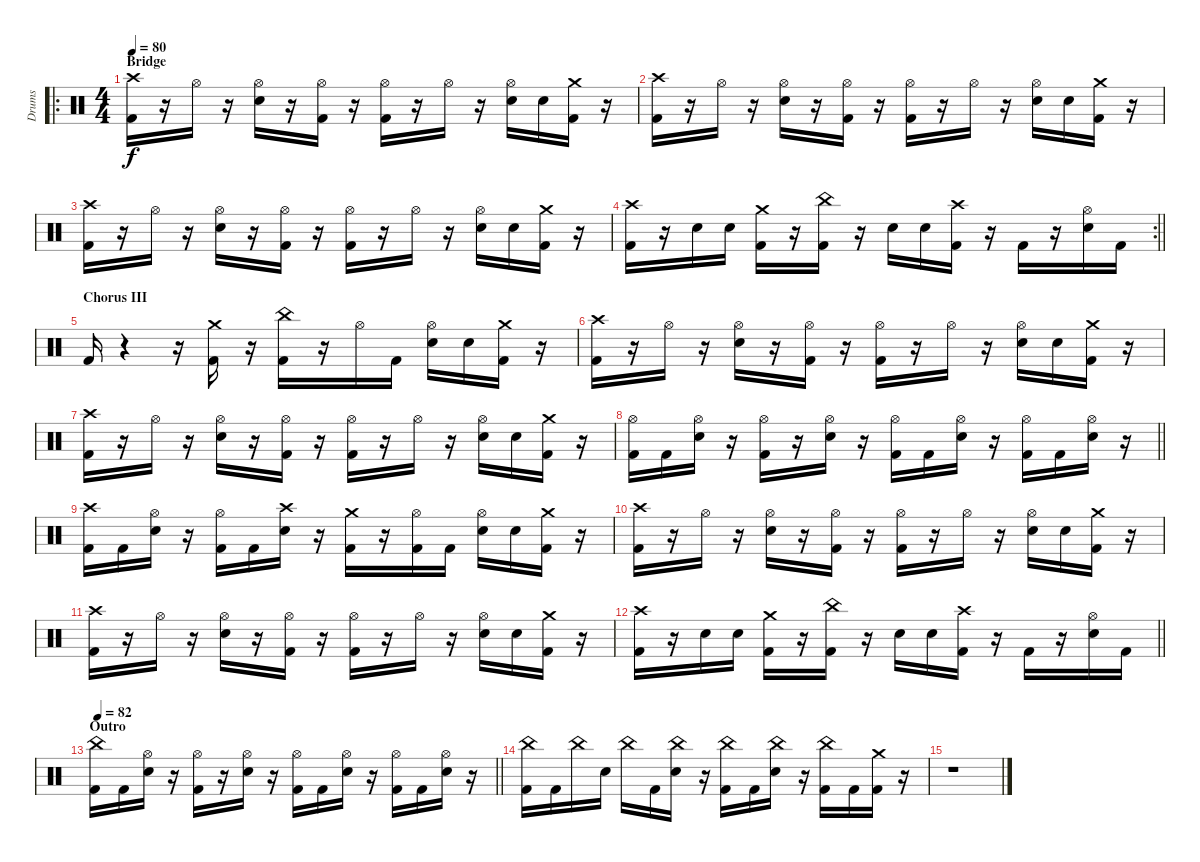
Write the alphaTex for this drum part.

\track ("Drums" "Drums") {instrument percussion}
\staff {score}
\articulation defaults
\ro
\ts (4 4)
\section ("" "Bridge")
\tempo 80
\clef neutral
\ks c
("Crash high (hit)" "Kick (hit) 2").16{dy f volume 13} r.16 "Hi-Hat (open)".16 r.16 ("Hi-Hat (open)" "Electric Snare (hit)").16 r.16 ("Hi-Hat (open)" "Kick (hit) 2").16 r.16 ("Hi-Hat (open)" "Kick (hit) 2").16 r.16 "Hi-Hat (open)".16 r.16 ("Hi-Hat (open)" "Electric Snare (hit)").16 "Electric Snare (hit)".16 ("Crash medium (hit)" "Kick (hit) 2").16 r.16 |
("Crash high (hit)" "Kick (hit) 2").16{volume 13} r.16 "Hi-Hat (open)".16 r.16 ("Hi-Hat (open)" "Electric Snare (hit)").16 r.16 ("Hi-Hat (open)" "Kick (hit) 2").16 r.16 ("Hi-Hat (open)" "Kick (hit) 2").16 r.16 "Hi-Hat (open)".16 r.16 ("Hi-Hat (open)" "Electric Snare (hit)").16 "Electric Snare (hit)".16 ("Crash medium (hit)" "Kick (hit) 2").16 r.16 |
("Crash high (hit)" "Kick (hit) 2").16{volume 13} r.16 "Hi-Hat (open)".16 r.16 ("Hi-Hat (open)" "Electric Snare (hit)").16 r.16 ("Hi-Hat (open)" "Kick (hit) 2").16 r.16 ("Hi-Hat (open)" "Kick (hit) 2").16 r.16 "Hi-Hat (open)".16 r.16 ("Hi-Hat (open)" "Electric Snare (hit)").16 "Electric Snare (hit)".16 ("Crash medium (hit)" "Kick (hit) 2").16 r.16 |
\rc 2
\barLineRight lightlight
("Crash high (hit)" "Kick (hit) 2").16 r.16 "Electric Snare (hit)".16 "Electric Snare (hit)".16 ("Crash medium (hit)" "Kick (hit) 2").16 r.16 ("China (hit)" "Kick (hit) 2").16 r.16 "Electric Snare (hit)".16 "Electric Snare (hit)".16 ("Crash high (hit)" "Kick (hit) 2").16 r.16 "Kick (hit) 2".16 r.16 ("Hi-Hat (open)" "Electric Snare (hit)").16 "Kick (hit) 2".16 |
\section ("" "Chorus III")
"Kick (hit) 2".16 r.4 r.16 ("Crash medium (hit)" "Kick (hit) 2").16 r.16 ("China (hit)" "Kick (hit) 2").16 r.16 "Hi-Hat (open)".16 "Kick (hit) 2".16 ("Hi-Hat (open)" "Electric Snare (hit)").16 "Electric Snare (hit)".16 ("Crash medium (hit)" "Kick (hit) 2").16 r.16 |
("Crash high (hit)" "Kick (hit) 2").16{volume 13} r.16 "Hi-Hat (open)".16 r.16 ("Hi-Hat (open)" "Electric Snare (hit)").16 r.16 ("Hi-Hat (open)" "Kick (hit) 2").16 r.16 ("Hi-Hat (open)" "Kick (hit) 2").16 r.16 "Hi-Hat (open)".16 r.16 ("Hi-Hat (open)" "Electric Snare (hit)").16 "Electric Snare (hit)".16 ("Crash medium (hit)" "Kick (hit) 2").16 r.16 |
("Crash high (hit)" "Kick (hit) 2").16{volume 13} r.16 "Hi-Hat (open)".16 r.16 ("Hi-Hat (open)" "Electric Snare (hit)").16 r.16 ("Hi-Hat (open)" "Kick (hit) 2").16 r.16 ("Hi-Hat (open)" "Kick (hit) 2").16 r.16 "Hi-Hat (open)".16 r.16 ("Hi-Hat (open)" "Electric Snare (hit)").16 "Electric Snare (hit)".16 ("Crash medium (hit)" "Kick (hit) 2").16 r.16 |
\barLineRight lightlight
("Hi-Hat (open)" "Kick (hit) 2").16 "Kick (hit) 2".16 ("Hi-Hat (open)" "Electric Snare (hit)").16 r.16 ("Hi-Hat (open)" "Kick (hit) 2").16 r.16 ("Hi-Hat (open)" "Electric Snare (hit)").16 r.16 ("Hi-Hat (open)" "Kick (hit) 2").16 "Kick (hit) 2".16 ("Hi-Hat (open)" "Electric Snare (hit)").16 r.16 ("Hi-Hat (open)" "Kick (hit) 2").16 "Kick (hit) 2".16 ("Hi-Hat (open)" "Electric Snare (hit)").16 r.16 |
("Crash high (hit)" "Kick (hit) 2").16{volume 13} "Kick (hit) 2".16 ("Hi-Hat (open)" "Electric Snare (hit)").16 r.16 ("Hi-Hat (open)" "Kick (hit) 2").16 "Kick (hit) 2".16 ("Crash high (hit)" "Electric Snare (hit)").16 r.16 ("Crash medium (hit)" "Kick (hit) 2").16 r.16 ("Hi-Hat (open)" "Kick (hit) 2").16 "Kick (hit) 2".16 ("Hi-Hat (open)" "Electric Snare (hit)").16 "Electric Snare (hit)".16 ("Crash medium (hit)" "Kick (hit) 2").16 r.16 |
("Crash high (hit)" "Kick (hit) 2").16{volume 13} r.16 "Hi-Hat (open)".16 r.16 ("Hi-Hat (open)" "Electric Snare (hit)").16 r.16 ("Hi-Hat (open)" "Kick (hit) 2").16 r.16 ("Hi-Hat (open)" "Kick (hit) 2").16 r.16 "Hi-Hat (open)".16 r.16 ("Hi-Hat (open)" "Electric Snare (hit)").16 "Electric Snare (hit)".16 ("Crash medium (hit)" "Kick (hit) 2").16 r.16 |
("Crash high (hit)" "Kick (hit) 2").16{volume 13} r.16 "Hi-Hat (open)".16 r.16 ("Hi-Hat (open)" "Electric Snare (hit)").16 r.16 ("Hi-Hat (open)" "Kick (hit) 2").16 r.16 ("Hi-Hat (open)" "Kick (hit) 2").16 r.16 "Hi-Hat (open)".16 r.16 ("Hi-Hat (open)" "Electric Snare (hit)").16 "Electric Snare (hit)".16 ("Crash medium (hit)" "Kick (hit) 2").16 r.16 |
\barLineRight lightlight
("Crash high (hit)" "Kick (hit) 2").16 r.16 "Electric Snare (hit)".16 "Electric Snare (hit)".16 ("Crash medium (hit)" "Kick (hit) 2").16 r.16 ("China (hit)" "Kick (hit) 2").16 r.16 "Electric Snare (hit)".16 "Electric Snare (hit)".16 ("Crash high (hit)" "Kick (hit) 2").16 r.16 "Kick (hit) 2".16 r.16 ("Hi-Hat (open)" "Electric Snare (hit)").16 "Kick (hit) 2".16 |
\section ("" "Outro")
\tempo 82
\barLineRight lightlight
("China (hit)" "Kick (hit) 2").16 "Kick (hit) 2".16 ("Hi-Hat (open)" "Electric Snare (hit)").16 r.16 ("Hi-Hat (open)" "Kick (hit) 2").16 r.16 ("Hi-Hat (open)" "Electric Snare (hit)").16 r.16 ("Hi-Hat (open)" "Kick (hit) 2").16 "Kick (hit) 2".16 ("Hi-Hat (open)" "Electric Snare (hit)").16 r.16 ("Hi-Hat (open)" "Kick (hit) 2").16 "Kick (hit) 2".16 ("Hi-Hat (open)" "Electric Snare (hit)").16 r.16 |
("China (hit)" "Kick (hit) 2").16 "Kick (hit) 2".16 "China (hit)".16 "Electric Snare (hit)".16 "China (hit)".16 "Kick (hit) 2".16 ("China (hit)" "Electric Snare (hit)").16 r.16 ("China (hit)" "Kick (hit) 2").16 "Kick (hit) 2".16 ("China (hit)" "Electric Snare (hit)").16 r.16 ("China (hit)" "Kick (hit) 2").16 "Kick (hit) 2".16 ("Crash medium (hit)" "Kick (hit) 2").16 r.16 |
r.1
